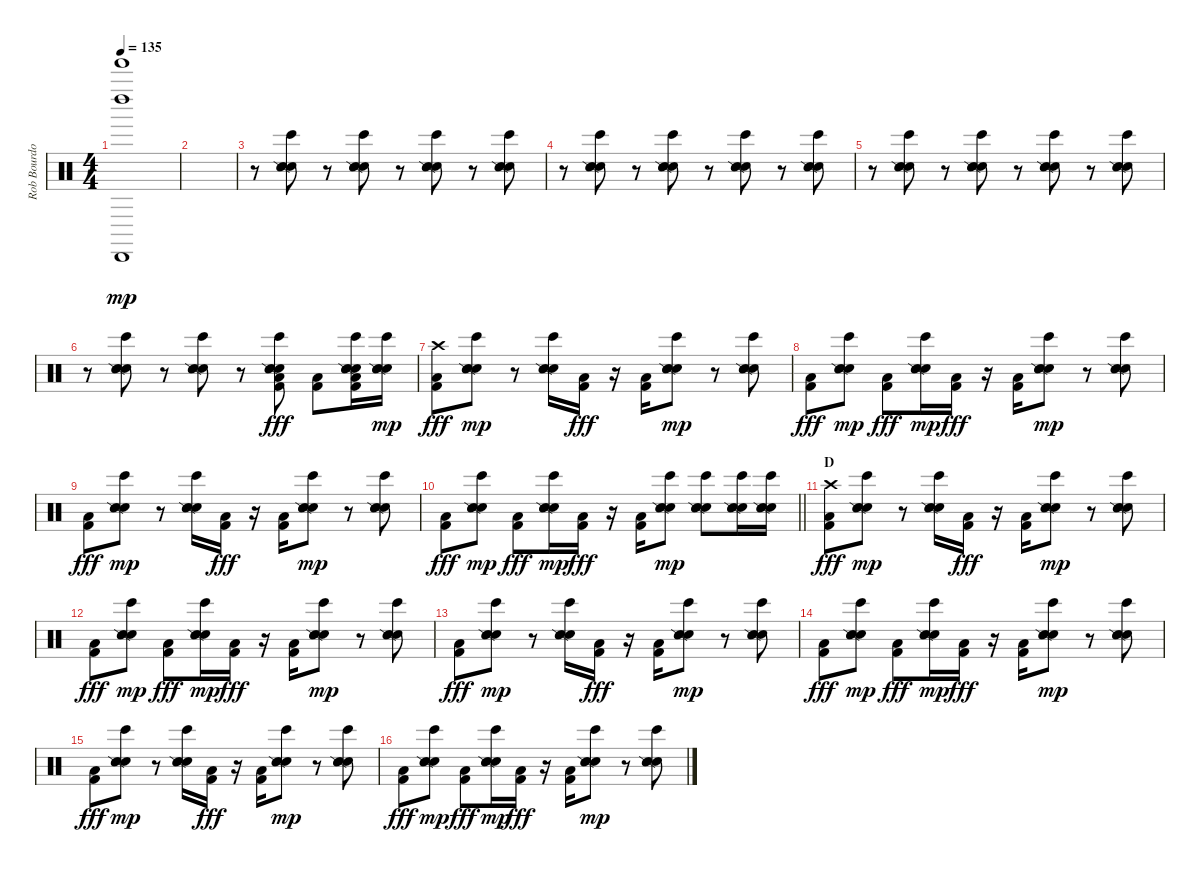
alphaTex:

\track ("Rob Bourdon - Beats & Drums" "Rob Bourdo") {instrument percussion}
\staff {score}
\articulation defaults
\ts (4 4)
\tempo 135
\clef neutral
\ks c
("Tinkle Bell (hit)" "Cabasa (hit)" "Left Maraca (hit)").1{dy mp} |
|
r.8 ("Bongo High (hit)" "Electric Snare (hit)" "Snare (side stick) 2" "Hand Clap (hit)").8 r.8 ("Bongo High (hit)" "Electric Snare (hit)" "Snare (side stick) 2" "Hand Clap (hit)").8 r.8 ("Bongo High (hit)" "Electric Snare (hit)" "Snare (side stick) 2" "Hand Clap (hit)").8 r.8 ("Bongo High (hit)" "Electric Snare (hit)" "Snare (side stick) 2" "Hand Clap (hit)").8 |
r.8 ("Bongo High (hit)" "Electric Snare (hit)" "Snare (side stick) 2" "Hand Clap (hit)").8 r.8 ("Bongo High (hit)" "Electric Snare (hit)" "Snare (side stick) 2" "Hand Clap (hit)").8 r.8 ("Bongo High (hit)" "Electric Snare (hit)" "Snare (side stick) 2" "Hand Clap (hit)").8 r.8 ("Bongo High (hit)" "Electric Snare (hit)" "Snare (side stick) 2" "Hand Clap (hit)").8 |
r.8 ("Bongo High (hit)" "Electric Snare (hit)" "Snare (side stick) 2" "Hand Clap (hit)").8 r.8 ("Bongo High (hit)" "Electric Snare (hit)" "Snare (side stick) 2" "Hand Clap (hit)").8 r.8 ("Bongo High (hit)" "Electric Snare (hit)" "Snare (side stick) 2" "Hand Clap (hit)").8 r.8 ("Bongo High (hit)" "Electric Snare (hit)" "Snare (side stick) 2" "Hand Clap (hit)").8 |
r.8 ("Bongo High (hit)" "Electric Snare (hit)" "Snare (side stick) 2" "Hand Clap (hit)").8 r.8 ("Bongo High (hit)" "Electric Snare (hit)" "Snare (side stick) 2" "Hand Clap (hit)").8 r.8 ("Low Floor Tom (hit)" "Bongo High (hit)" "Electric Snare (hit)" "Snare (side stick) 2" "Hand Clap (hit)" "Kick (hit) 2").8{dy fff} ("Low Floor Tom (hit)" "Kick (hit) 2").8 ("Low Floor Tom (hit)" "Bongo High (hit)" "Electric Snare (hit)" "Snare (side stick) 2" "Hand Clap (hit)" "Kick (hit) 2").16 ("Bongo High (hit)" "Electric Snare (hit)" "Snare (side stick) 2" "Hand Clap (hit)").16{dy mp} |
("Low Floor Tom (hit)" "Crash high (hit)" "Kick (hit) 2").8{dy fff} ("Bongo High (hit)" "Electric Snare (hit)" "Snare (side stick) 2" "Hand Clap (hit)").8{dy mp} r.8 ("Bongo High (hit)" "Electric Snare (hit)" "Snare (side stick) 2" "Hand Clap (hit)").16 ("Low Floor Tom (hit)" "Kick (hit) 2").16{dy fff} r.16 ("Low Floor Tom (hit)" "Kick (hit) 2").16 ("Bongo High (hit)" "Electric Snare (hit)" "Snare (side stick) 2" "Hand Clap (hit)").8{dy mp} r.8 ("Bongo High (hit)" "Electric Snare (hit)" "Snare (side stick) 2" "Hand Clap (hit)").8 |
("Low Floor Tom (hit)" "Kick (hit) 2").8{dy fff} ("Bongo High (hit)" "Electric Snare (hit)" "Snare (side stick) 2" "Hand Clap (hit)").8{dy mp} ("Low Floor Tom (hit)" "Kick (hit) 2").8{dy fff} ("Bongo High (hit)" "Electric Snare (hit)" "Snare (side stick) 2" "Hand Clap (hit)").16{dy mp} ("Low Floor Tom (hit)" "Kick (hit) 2").16{dy fff} r.16 ("Low Floor Tom (hit)" "Kick (hit) 2").16 ("Bongo High (hit)" "Electric Snare (hit)" "Snare (side stick) 2" "Hand Clap (hit)").8{dy mp} r.8 ("Bongo High (hit)" "Electric Snare (hit)" "Snare (side stick) 2" "Hand Clap (hit)").8 |
("Low Floor Tom (hit)" "Kick (hit) 2").8{dy fff} ("Bongo High (hit)" "Electric Snare (hit)" "Snare (side stick) 2" "Hand Clap (hit)").8{dy mp} r.8 ("Bongo High (hit)" "Electric Snare (hit)" "Snare (side stick) 2" "Hand Clap (hit)").16 ("Low Floor Tom (hit)" "Kick (hit) 2").16{dy fff} r.16 ("Low Floor Tom (hit)" "Kick (hit) 2").16 ("Bongo High (hit)" "Electric Snare (hit)" "Snare (side stick) 2" "Hand Clap (hit)").8{dy mp} r.8 ("Bongo High (hit)" "Electric Snare (hit)" "Snare (side stick) 2" "Hand Clap (hit)").8 |
\barLineRight lightlight
("Low Floor Tom (hit)" "Kick (hit) 2").8{dy fff} ("Bongo High (hit)" "Electric Snare (hit)" "Snare (side stick) 2" "Hand Clap (hit)").8{dy mp} ("Low Floor Tom (hit)" "Kick (hit) 2").8{dy fff} ("Bongo High (hit)" "Electric Snare (hit)" "Snare (side stick) 2" "Hand Clap (hit)").16{dy mp} ("Low Floor Tom (hit)" "Kick (hit) 2").16{dy fff} r.16 ("Low Floor Tom (hit)" "Kick (hit) 2").16 ("Bongo High (hit)" "Electric Snare (hit)" "Snare (side stick) 2" "Hand Clap (hit)").8{dy mp} ("Bongo High (hit)" "Electric Snare (hit)" "Snare (side stick) 2" "Hand Clap (hit)").8 ("Bongo High (hit)" "Electric Snare (hit)" "Snare (side stick) 2" "Hand Clap (hit)").16 ("Bongo High (hit)" "Electric Snare (hit)" "Snare (side stick) 2" "Hand Clap (hit)").16 |
\section ("" "D")
("Low Floor Tom (hit)" "Crash high (hit)" "Kick (hit) 2").8{dy fff} ("Bongo High (hit)" "Electric Snare (hit)" "Snare (side stick) 2" "Hand Clap (hit)").8{dy mp} r.8 ("Bongo High (hit)" "Electric Snare (hit)" "Snare (side stick) 2" "Hand Clap (hit)").16 ("Low Floor Tom (hit)" "Kick (hit) 2").16{dy fff} r.16 ("Low Floor Tom (hit)" "Kick (hit) 2").16 ("Bongo High (hit)" "Electric Snare (hit)" "Snare (side stick) 2" "Hand Clap (hit)").8{dy mp} r.8 ("Bongo High (hit)" "Electric Snare (hit)" "Snare (side stick) 2" "Hand Clap (hit)").8 |
("Low Floor Tom (hit)" "Kick (hit) 2").8{dy fff} ("Bongo High (hit)" "Electric Snare (hit)" "Snare (side stick) 2" "Hand Clap (hit)").8{dy mp} ("Low Floor Tom (hit)" "Kick (hit) 2").8{dy fff} ("Bongo High (hit)" "Electric Snare (hit)" "Snare (side stick) 2" "Hand Clap (hit)").16{dy mp} ("Low Floor Tom (hit)" "Kick (hit) 2").16{dy fff} r.16 ("Low Floor Tom (hit)" "Kick (hit) 2").16 ("Bongo High (hit)" "Electric Snare (hit)" "Snare (side stick) 2" "Hand Clap (hit)").8{dy mp} r.8 ("Bongo High (hit)" "Electric Snare (hit)" "Snare (side stick) 2" "Hand Clap (hit)").8 |
("Low Floor Tom (hit)" "Kick (hit) 2").8{dy fff} ("Bongo High (hit)" "Electric Snare (hit)" "Snare (side stick) 2" "Hand Clap (hit)").8{dy mp} r.8 ("Bongo High (hit)" "Electric Snare (hit)" "Snare (side stick) 2" "Hand Clap (hit)").16 ("Low Floor Tom (hit)" "Kick (hit) 2").16{dy fff} r.16 ("Low Floor Tom (hit)" "Kick (hit) 2").16 ("Bongo High (hit)" "Electric Snare (hit)" "Snare (side stick) 2" "Hand Clap (hit)").8{dy mp} r.8 ("Bongo High (hit)" "Electric Snare (hit)" "Snare (side stick) 2" "Hand Clap (hit)").8 |
("Low Floor Tom (hit)" "Kick (hit) 2").8{dy fff} ("Bongo High (hit)" "Electric Snare (hit)" "Snare (side stick) 2" "Hand Clap (hit)").8{dy mp} ("Low Floor Tom (hit)" "Kick (hit) 2").8{dy fff} ("Bongo High (hit)" "Electric Snare (hit)" "Snare (side stick) 2" "Hand Clap (hit)").16{dy mp} ("Low Floor Tom (hit)" "Kick (hit) 2").16{dy fff} r.16 ("Low Floor Tom (hit)" "Kick (hit) 2").16 ("Bongo High (hit)" "Electric Snare (hit)" "Snare (side stick) 2" "Hand Clap (hit)").8{dy mp} r.8 ("Bongo High (hit)" "Electric Snare (hit)" "Snare (side stick) 2" "Hand Clap (hit)").8 |
("Low Floor Tom (hit)" "Kick (hit) 2").8{dy fff} ("Bongo High (hit)" "Electric Snare (hit)" "Snare (side stick) 2" "Hand Clap (hit)").8{dy mp} r.8 ("Bongo High (hit)" "Electric Snare (hit)" "Snare (side stick) 2" "Hand Clap (hit)").16 ("Low Floor Tom (hit)" "Kick (hit) 2").16{dy fff} r.16 ("Low Floor Tom (hit)" "Kick (hit) 2").16 ("Bongo High (hit)" "Electric Snare (hit)" "Snare (side stick) 2" "Hand Clap (hit)").8{dy mp} r.8 ("Bongo High (hit)" "Electric Snare (hit)" "Snare (side stick) 2" "Hand Clap (hit)").8 |
("Low Floor Tom (hit)" "Kick (hit) 2").8{dy fff} ("Bongo High (hit)" "Electric Snare (hit)" "Snare (side stick) 2" "Hand Clap (hit)").8{dy mp} ("Low Floor Tom (hit)" "Kick (hit) 2").8{dy fff} ("Bongo High (hit)" "Electric Snare (hit)" "Snare (side stick) 2" "Hand Clap (hit)").16{dy mp} ("Low Floor Tom (hit)" "Kick (hit) 2").16{dy fff} r.16 ("Low Floor Tom (hit)" "Kick (hit) 2").16 ("Bongo High (hit)" "Electric Snare (hit)" "Snare (side stick) 2" "Hand Clap (hit)").8{dy mp} r.8 ("Bongo High (hit)" "Electric Snare (hit)" "Snare (side stick) 2" "Hand Clap (hit)").8
